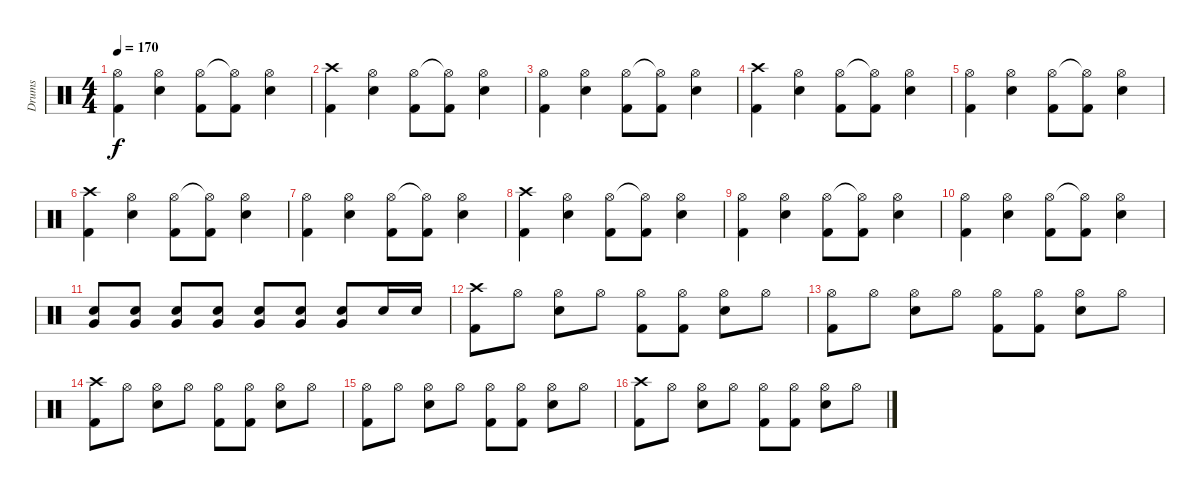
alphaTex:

\track ("Drums" "Drums") {instrument percussion}
\staff {score}
\articulation defaults
\ts (4 4)
\tempo 170
\clef neutral
\ks c
("Hi-Hat (open)" "Kick (hit) 2").4{dy f} ("Hi-Hat (open)" "Snare (hit) 2").4 ("Hi-Hat (open)" "Kick (hit) 2").8 ("Hi-Hat (open)"{t} "Kick (hit) 2").8 ("Hi-Hat (open)" "Snare (hit) 2").4 |
("Crash high (hit)" "Kick (hit) 2").4 ("Hi-Hat (open)" "Snare (hit) 2").4 ("Hi-Hat (open)" "Kick (hit) 2").8 ("Hi-Hat (open)"{t} "Kick (hit) 2").8 ("Hi-Hat (open)" "Snare (hit) 2").4 |
("Hi-Hat (open)" "Kick (hit) 2").4 ("Hi-Hat (open)" "Snare (hit) 2").4 ("Hi-Hat (open)" "Kick (hit) 2").8 ("Hi-Hat (open)"{t} "Kick (hit) 2").8 ("Hi-Hat (open)" "Snare (hit) 2").4 |
("Crash high (hit)" "Kick (hit) 2").4 ("Hi-Hat (open)" "Snare (hit) 2").4 ("Hi-Hat (open)" "Kick (hit) 2").8 ("Hi-Hat (open)"{t} "Kick (hit) 2").8 ("Hi-Hat (open)" "Snare (hit) 2").4 |
("Hi-Hat (open)" "Kick (hit) 2").4 ("Hi-Hat (open)" "Snare (hit) 2").4 ("Hi-Hat (open)" "Kick (hit) 2").8 ("Hi-Hat (open)"{t} "Kick (hit) 2").8 ("Hi-Hat (open)" "Snare (hit) 2").4 |
("Crash high (hit)" "Kick (hit) 2").4 ("Hi-Hat (open)" "Snare (hit) 2").4 ("Hi-Hat (open)" "Kick (hit) 2").8 ("Hi-Hat (open)"{t} "Kick (hit) 2").8 ("Hi-Hat (open)" "Snare (hit) 2").4 |
("Hi-Hat (open)" "Kick (hit) 2").4 ("Hi-Hat (open)" "Snare (hit) 2").4 ("Hi-Hat (open)" "Kick (hit) 2").8 ("Hi-Hat (open)"{t} "Kick (hit) 2").8 ("Hi-Hat (open)" "Snare (hit) 2").4 |
("Crash high (hit)" "Kick (hit) 2").4 ("Hi-Hat (open)" "Snare (hit) 2").4 ("Hi-Hat (open)" "Kick (hit) 2").8 ("Hi-Hat (open)"{t} "Kick (hit) 2").8 ("Hi-Hat (open)" "Snare (hit) 2").4 |
("Hi-Hat (open)" "Kick (hit) 2").4 ("Hi-Hat (open)" "Snare (hit) 2").4 ("Hi-Hat (open)" "Kick (hit) 2").8 ("Hi-Hat (open)"{t} "Kick (hit) 2").8 ("Hi-Hat (open)" "Snare (hit) 2").4 |
("Hi-Hat (open)" "Kick (hit) 2").4 ("Hi-Hat (open)" "Snare (hit) 2").4 ("Hi-Hat (open)" "Kick (hit) 2").8 ("Hi-Hat (open)"{t} "Kick (hit) 2").8 ("Hi-Hat (open)" "Snare (hit) 2").4 |
("Snare (hit) 2" "Very Low Tom (hit)").8 ("Snare (hit) 2" "Very Low Tom (hit)").8 ("Snare (hit) 2" "Very Low Tom (hit)").8 ("Snare (hit) 2" "Very Low Tom (hit)").8 ("Snare (hit) 2" "Very Low Tom (hit)").8 ("Snare (hit) 2" "Very Low Tom (hit)").8 ("Snare (hit) 2" "Very Low Tom (hit)").8 "Snare (hit) 2".16 "Snare (hit) 2".16 |
("Crash high (hit)" "Kick (hit) 2").8 "Hi-Hat (open)".8 ("Hi-Hat (open)" "Snare (hit) 2").8 "Hi-Hat (open)".8 ("Hi-Hat (open)" "Kick (hit) 2").8 ("Hi-Hat (open)" "Kick (hit) 2").8 ("Hi-Hat (open)" "Snare (hit) 2").8 "Hi-Hat (open)".8 |
("Hi-Hat (open)" "Kick (hit) 2").8 "Hi-Hat (open)".8 ("Hi-Hat (open)" "Snare (hit) 2").8 "Hi-Hat (open)".8 ("Hi-Hat (open)" "Kick (hit) 2").8 ("Hi-Hat (open)" "Kick (hit) 2").8 ("Hi-Hat (open)" "Snare (hit) 2").8 "Hi-Hat (open)".8 |
("Crash high (hit)" "Kick (hit) 2").8 "Hi-Hat (open)".8 ("Hi-Hat (open)" "Snare (hit) 2").8 "Hi-Hat (open)".8 ("Hi-Hat (open)" "Kick (hit) 2").8 ("Hi-Hat (open)" "Kick (hit) 2").8 ("Hi-Hat (open)" "Snare (hit) 2").8 "Hi-Hat (open)".8 |
("Hi-Hat (open)" "Kick (hit) 2").8 "Hi-Hat (open)".8 ("Hi-Hat (open)" "Snare (hit) 2").8 "Hi-Hat (open)".8 ("Hi-Hat (open)" "Kick (hit) 2").8 ("Hi-Hat (open)" "Kick (hit) 2").8 ("Hi-Hat (open)" "Snare (hit) 2").8 "Hi-Hat (open)".8 |
("Crash high (hit)" "Kick (hit) 2").8 "Hi-Hat (open)".8 ("Hi-Hat (open)" "Snare (hit) 2").8 "Hi-Hat (open)".8 ("Hi-Hat (open)" "Kick (hit) 2").8 ("Hi-Hat (open)" "Kick (hit) 2").8 ("Hi-Hat (open)" "Snare (hit) 2").8 "Hi-Hat (open)".8
